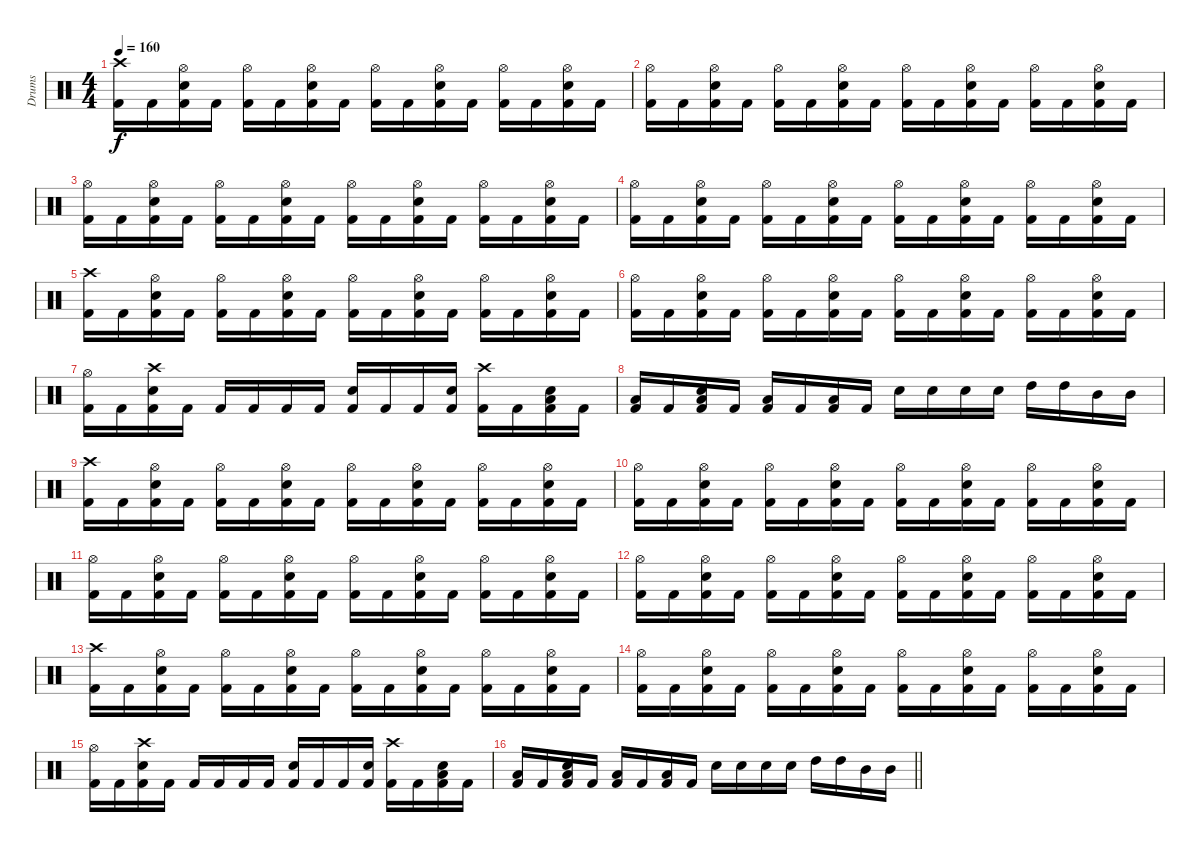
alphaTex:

\track ("Drums" "Drums") {instrument percussion}
\staff {score}
\articulation defaults
\ts (4 4)
\tempo 160
\clef neutral
\ks c
("Crash high (hit)" "Kick (hit) 2").16{dy f} "Kick (hit) 2".16 ("Hi-Hat (open)" "Snare (hit) 2" "Kick (hit) 2").16 "Kick (hit) 2".16 ("Hi-Hat (open)" "Kick (hit) 2").16 "Kick (hit) 2".16 ("Hi-Hat (open)" "Snare (hit) 2" "Kick (hit) 2").16 "Kick (hit) 2".16 ("Hi-Hat (open)" "Kick (hit) 2").16 "Kick (hit) 2".16 ("Hi-Hat (open)" "Snare (hit) 2" "Kick (hit) 2").16 "Kick (hit) 2".16 ("Hi-Hat (open)" "Kick (hit) 2").16 "Kick (hit) 2".16 ("Hi-Hat (open)" "Snare (hit) 2" "Kick (hit) 2").16 "Kick (hit) 2".16 |
("Hi-Hat (open)" "Kick (hit) 2").16 "Kick (hit) 2".16 ("Hi-Hat (open)" "Snare (hit) 2" "Kick (hit) 2").16 "Kick (hit) 2".16 ("Hi-Hat (open)" "Kick (hit) 2").16 "Kick (hit) 2".16 ("Hi-Hat (open)" "Snare (hit) 2" "Kick (hit) 2").16 "Kick (hit) 2".16 ("Hi-Hat (open)" "Kick (hit) 2").16 "Kick (hit) 2".16 ("Hi-Hat (open)" "Snare (hit) 2" "Kick (hit) 2").16 "Kick (hit) 2".16 ("Hi-Hat (open)" "Kick (hit) 2").16 "Kick (hit) 2".16 ("Hi-Hat (open)" "Snare (hit) 2" "Kick (hit) 2").16 "Kick (hit) 2".16 |
("Hi-Hat (open)" "Kick (hit) 2").16 "Kick (hit) 2".16 ("Hi-Hat (open)" "Snare (hit) 2" "Kick (hit) 2").16 "Kick (hit) 2".16 ("Hi-Hat (open)" "Kick (hit) 2").16 "Kick (hit) 2".16 ("Hi-Hat (open)" "Snare (hit) 2" "Kick (hit) 2").16 "Kick (hit) 2".16 ("Hi-Hat (open)" "Kick (hit) 2").16 "Kick (hit) 2".16 ("Hi-Hat (open)" "Snare (hit) 2" "Kick (hit) 2").16 "Kick (hit) 2".16 ("Hi-Hat (open)" "Kick (hit) 2").16 "Kick (hit) 2".16 ("Hi-Hat (open)" "Snare (hit) 2" "Kick (hit) 2").16 "Kick (hit) 2".16 |
("Hi-Hat (open)" "Kick (hit) 2").16 "Kick (hit) 2".16 ("Hi-Hat (open)" "Snare (hit) 2" "Kick (hit) 2").16 "Kick (hit) 2".16 ("Hi-Hat (open)" "Kick (hit) 2").16 "Kick (hit) 2".16 ("Hi-Hat (open)" "Snare (hit) 2" "Kick (hit) 2").16 "Kick (hit) 2".16 ("Hi-Hat (open)" "Kick (hit) 2").16 "Kick (hit) 2".16 ("Hi-Hat (open)" "Snare (hit) 2" "Kick (hit) 2").16 "Kick (hit) 2".16 ("Hi-Hat (open)" "Kick (hit) 2").16 "Kick (hit) 2".16 ("Hi-Hat (open)" "Snare (hit) 2" "Kick (hit) 2").16 "Kick (hit) 2".16 |
("Crash high (hit)" "Kick (hit) 2").16 "Kick (hit) 2".16 ("Hi-Hat (open)" "Snare (hit) 2" "Kick (hit) 2").16 "Kick (hit) 2".16 ("Hi-Hat (open)" "Kick (hit) 2").16 "Kick (hit) 2".16 ("Hi-Hat (open)" "Snare (hit) 2" "Kick (hit) 2").16 "Kick (hit) 2".16 ("Hi-Hat (open)" "Kick (hit) 2").16 "Kick (hit) 2".16 ("Hi-Hat (open)" "Snare (hit) 2" "Kick (hit) 2").16 "Kick (hit) 2".16 ("Hi-Hat (open)" "Kick (hit) 2").16 "Kick (hit) 2".16 ("Hi-Hat (open)" "Snare (hit) 2" "Kick (hit) 2").16 "Kick (hit) 2".16 |
("Hi-Hat (open)" "Kick (hit) 2").16 "Kick (hit) 2".16 ("Hi-Hat (open)" "Snare (hit) 2" "Kick (hit) 2").16 "Kick (hit) 2".16 ("Hi-Hat (open)" "Kick (hit) 2").16 "Kick (hit) 2".16 ("Hi-Hat (open)" "Snare (hit) 2" "Kick (hit) 2").16 "Kick (hit) 2".16 ("Hi-Hat (open)" "Kick (hit) 2").16 "Kick (hit) 2".16 ("Hi-Hat (open)" "Snare (hit) 2" "Kick (hit) 2").16 "Kick (hit) 2".16 ("Hi-Hat (open)" "Kick (hit) 2").16 "Kick (hit) 2".16 ("Hi-Hat (open)" "Snare (hit) 2" "Kick (hit) 2").16 "Kick (hit) 2".16 |
("Hi-Hat (open)" "Kick (hit) 2").16 "Kick (hit) 2".16 ("Crash high (hit)" "Snare (hit) 2" "Kick (hit) 2").16 "Kick (hit) 2".16 "Kick (hit) 2".16 "Kick (hit) 2".16 "Kick (hit) 2".16 "Kick (hit) 2".16 ("Snare (hit) 2" "Kick (hit) 2").16 "Kick (hit) 2".16 "Kick (hit) 2".16 ("Snare (hit) 2" "Kick (hit) 2").16 ("Crash high (hit)" "Kick (hit) 2").16 "Kick (hit) 2".16 ("Low Tom (hit)" "Snare (hit) 2" "Kick (hit) 2").16 "Kick (hit) 2".16 |
("Low Tom (hit)" "Kick (hit) 2").16 "Kick (hit) 2".16 ("Low Tom (hit)" "Snare (hit) 2" "Kick (hit) 2").16 "Kick (hit) 2".16 ("Low Tom (hit)" "Kick (hit) 2").16 "Kick (hit) 2".16 ("Low Tom (hit)" "Kick (hit) 2").16 "Kick (hit) 2".16 "Snare (hit) 2".16 "Snare (hit) 2".16 "Snare (hit) 2".16 "Snare (hit) 2".16 "High Tom (hit)".16 "High Tom (hit)".16 "Mid Tom (hit)".16 "Mid Tom (hit)".16 |
("Crash high (hit)" "Kick (hit) 2").16 "Kick (hit) 2".16 ("Hi-Hat (open)" "Snare (hit) 2" "Kick (hit) 2").16 "Kick (hit) 2".16 ("Hi-Hat (open)" "Kick (hit) 2").16 "Kick (hit) 2".16 ("Hi-Hat (open)" "Snare (hit) 2" "Kick (hit) 2").16 "Kick (hit) 2".16 ("Hi-Hat (open)" "Kick (hit) 2").16 "Kick (hit) 2".16 ("Hi-Hat (open)" "Snare (hit) 2" "Kick (hit) 2").16 "Kick (hit) 2".16 ("Hi-Hat (open)" "Kick (hit) 2").16 "Kick (hit) 2".16 ("Hi-Hat (open)" "Snare (hit) 2" "Kick (hit) 2").16 "Kick (hit) 2".16 |
("Hi-Hat (open)" "Kick (hit) 2").16 "Kick (hit) 2".16 ("Hi-Hat (open)" "Snare (hit) 2" "Kick (hit) 2").16 "Kick (hit) 2".16 ("Hi-Hat (open)" "Kick (hit) 2").16 "Kick (hit) 2".16 ("Hi-Hat (open)" "Snare (hit) 2" "Kick (hit) 2").16 "Kick (hit) 2".16 ("Hi-Hat (open)" "Kick (hit) 2").16 "Kick (hit) 2".16 ("Hi-Hat (open)" "Snare (hit) 2" "Kick (hit) 2").16 "Kick (hit) 2".16 ("Hi-Hat (open)" "Kick (hit) 2").16 "Kick (hit) 2".16 ("Hi-Hat (open)" "Snare (hit) 2" "Kick (hit) 2").16 "Kick (hit) 2".16 |
("Hi-Hat (open)" "Kick (hit) 2").16 "Kick (hit) 2".16 ("Hi-Hat (open)" "Snare (hit) 2" "Kick (hit) 2").16 "Kick (hit) 2".16 ("Hi-Hat (open)" "Kick (hit) 2").16 "Kick (hit) 2".16 ("Hi-Hat (open)" "Snare (hit) 2" "Kick (hit) 2").16 "Kick (hit) 2".16 ("Hi-Hat (open)" "Kick (hit) 2").16 "Kick (hit) 2".16 ("Hi-Hat (open)" "Snare (hit) 2" "Kick (hit) 2").16 "Kick (hit) 2".16 ("Hi-Hat (open)" "Kick (hit) 2").16 "Kick (hit) 2".16 ("Hi-Hat (open)" "Snare (hit) 2" "Kick (hit) 2").16 "Kick (hit) 2".16 |
("Hi-Hat (open)" "Kick (hit) 2").16 "Kick (hit) 2".16 ("Hi-Hat (open)" "Snare (hit) 2" "Kick (hit) 2").16 "Kick (hit) 2".16 ("Hi-Hat (open)" "Kick (hit) 2").16 "Kick (hit) 2".16 ("Hi-Hat (open)" "Snare (hit) 2" "Kick (hit) 2").16 "Kick (hit) 2".16 ("Hi-Hat (open)" "Kick (hit) 2").16 "Kick (hit) 2".16 ("Hi-Hat (open)" "Snare (hit) 2" "Kick (hit) 2").16 "Kick (hit) 2".16 ("Hi-Hat (open)" "Kick (hit) 2").16 "Kick (hit) 2".16 ("Hi-Hat (open)" "Snare (hit) 2" "Kick (hit) 2").16 "Kick (hit) 2".16 |
("Crash high (hit)" "Kick (hit) 2").16 "Kick (hit) 2".16 ("Hi-Hat (open)" "Snare (hit) 2" "Kick (hit) 2").16 "Kick (hit) 2".16 ("Hi-Hat (open)" "Kick (hit) 2").16 "Kick (hit) 2".16 ("Hi-Hat (open)" "Snare (hit) 2" "Kick (hit) 2").16 "Kick (hit) 2".16 ("Hi-Hat (open)" "Kick (hit) 2").16 "Kick (hit) 2".16 ("Hi-Hat (open)" "Snare (hit) 2" "Kick (hit) 2").16 "Kick (hit) 2".16 ("Hi-Hat (open)" "Kick (hit) 2").16 "Kick (hit) 2".16 ("Hi-Hat (open)" "Snare (hit) 2" "Kick (hit) 2").16 "Kick (hit) 2".16 |
("Hi-Hat (open)" "Kick (hit) 2").16 "Kick (hit) 2".16 ("Hi-Hat (open)" "Snare (hit) 2" "Kick (hit) 2").16 "Kick (hit) 2".16 ("Hi-Hat (open)" "Kick (hit) 2").16 "Kick (hit) 2".16 ("Hi-Hat (open)" "Snare (hit) 2" "Kick (hit) 2").16 "Kick (hit) 2".16 ("Hi-Hat (open)" "Kick (hit) 2").16 "Kick (hit) 2".16 ("Hi-Hat (open)" "Snare (hit) 2" "Kick (hit) 2").16 "Kick (hit) 2".16 ("Hi-Hat (open)" "Kick (hit) 2").16 "Kick (hit) 2".16 ("Hi-Hat (open)" "Snare (hit) 2" "Kick (hit) 2").16 "Kick (hit) 2".16 |
("Hi-Hat (open)" "Kick (hit) 2").16 "Kick (hit) 2".16 ("Crash high (hit)" "Snare (hit) 2" "Kick (hit) 2").16 "Kick (hit) 2".16 "Kick (hit) 2".16 "Kick (hit) 2".16 "Kick (hit) 2".16 "Kick (hit) 2".16 ("Snare (hit) 2" "Kick (hit) 2").16 "Kick (hit) 2".16 "Kick (hit) 2".16 ("Snare (hit) 2" "Kick (hit) 2").16 ("Crash high (hit)" "Kick (hit) 2").16 "Kick (hit) 2".16 ("Low Tom (hit)" "Snare (hit) 2" "Kick (hit) 2").16 "Kick (hit) 2".16 |
\barLineRight lightlight
("Low Tom (hit)" "Kick (hit) 2").16 "Kick (hit) 2".16 ("Low Tom (hit)" "Snare (hit) 2" "Kick (hit) 2").16 "Kick (hit) 2".16 ("Low Tom (hit)" "Kick (hit) 2").16 "Kick (hit) 2".16 ("Low Tom (hit)" "Kick (hit) 2").16 "Kick (hit) 2".16 "Snare (hit) 2".16 "Snare (hit) 2".16 "Snare (hit) 2".16 "Snare (hit) 2".16 "High Tom (hit)".16 "High Tom (hit)".16 "Mid Tom (hit)".16 "Mid Tom (hit)".16
